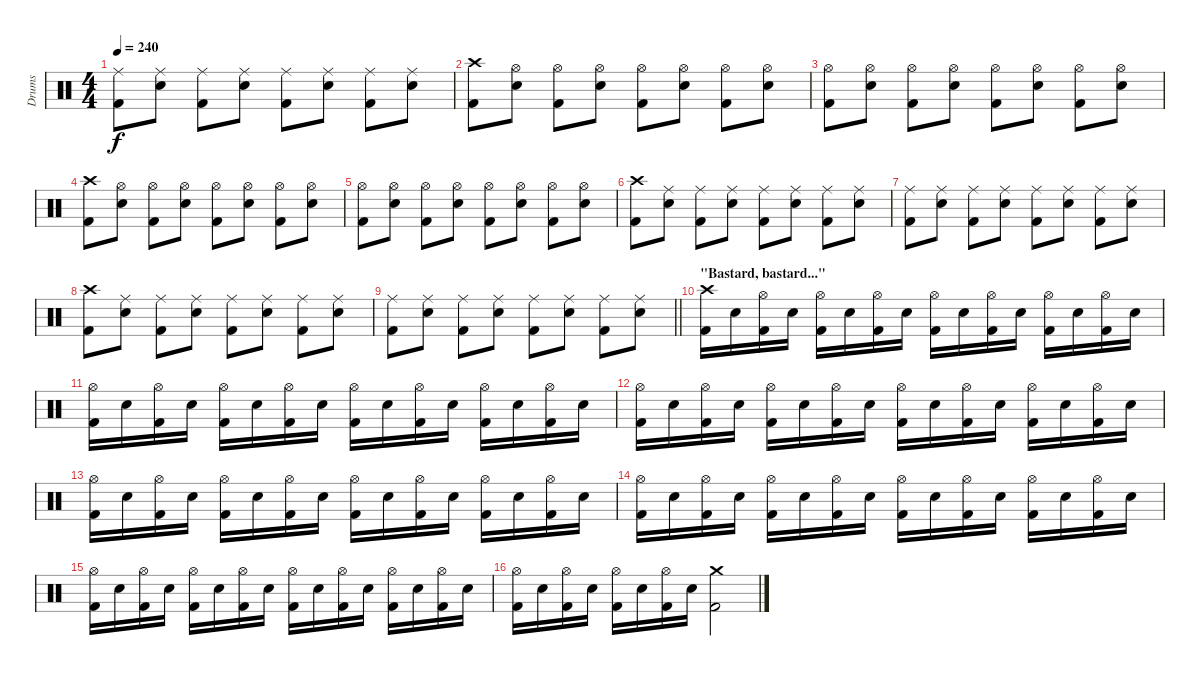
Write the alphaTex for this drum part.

\track ("Drums" "Drums") {instrument percussion}
\staff {score}
\articulation defaults
\ts (4 4)
\tempo 240
\clef neutral
\ks c
("Ride (middle)" "Kick (hit) 2").8{dy f} ("Ride (middle)" "Electric Snare (hit)").8 ("Ride (middle)" "Kick (hit) 2").8 ("Ride (middle)" "Electric Snare (hit)").8 ("Ride (middle)" "Kick (hit) 2").8 ("Ride (middle)" "Electric Snare (hit)").8 ("Ride (middle)" "Kick (hit) 2").8 ("Ride (middle)" "Electric Snare (hit)").8 |
("Crash high (hit)" "Kick (hit) 2").8 ("Hi-Hat (open)" "Electric Snare (hit)").8 ("Hi-Hat (open)" "Kick (hit) 2").8 ("Hi-Hat (open)" "Electric Snare (hit)").8 ("Hi-Hat (open)" "Kick (hit) 2").8 ("Hi-Hat (open)" "Electric Snare (hit)").8 ("Hi-Hat (open)" "Kick (hit) 2").8 ("Hi-Hat (open)" "Electric Snare (hit)").8 |
("Hi-Hat (open)" "Kick (hit) 2").8 ("Hi-Hat (open)" "Electric Snare (hit)").8 ("Hi-Hat (open)" "Kick (hit) 2").8 ("Hi-Hat (open)" "Electric Snare (hit)").8 ("Hi-Hat (open)" "Kick (hit) 2").8 ("Hi-Hat (open)" "Electric Snare (hit)").8 ("Hi-Hat (open)" "Kick (hit) 2").8 ("Hi-Hat (open)" "Electric Snare (hit)").8 |
("Crash high (hit)" "Kick (hit) 2").8 ("Hi-Hat (open)" "Electric Snare (hit)").8 ("Hi-Hat (open)" "Kick (hit) 2").8 ("Hi-Hat (open)" "Electric Snare (hit)").8 ("Hi-Hat (open)" "Kick (hit) 2").8 ("Hi-Hat (open)" "Electric Snare (hit)").8 ("Hi-Hat (open)" "Kick (hit) 2").8 ("Hi-Hat (open)" "Electric Snare (hit)").8 |
("Hi-Hat (open)" "Kick (hit) 2").8 ("Hi-Hat (open)" "Electric Snare (hit)").8 ("Hi-Hat (open)" "Kick (hit) 2").8 ("Hi-Hat (open)" "Electric Snare (hit)").8 ("Hi-Hat (open)" "Kick (hit) 2").8 ("Hi-Hat (open)" "Electric Snare (hit)").8 ("Hi-Hat (open)" "Kick (hit) 2").8 ("Hi-Hat (open)" "Electric Snare (hit)").8 |
("Crash high (hit)" "Kick (hit) 2").8 ("Ride (middle)" "Electric Snare (hit)").8 ("Ride (middle)" "Kick (hit) 2").8 ("Ride (middle)" "Electric Snare (hit)").8 ("Ride (middle)" "Kick (hit) 2").8 ("Ride (middle)" "Electric Snare (hit)").8 ("Ride (middle)" "Kick (hit) 2").8 ("Ride (middle)" "Electric Snare (hit)").8 |
("Ride (middle)" "Kick (hit) 2").8 ("Ride (middle)" "Electric Snare (hit)").8 ("Ride (middle)" "Kick (hit) 2").8 ("Ride (middle)" "Electric Snare (hit)").8 ("Ride (middle)" "Kick (hit) 2").8 ("Ride (middle)" "Electric Snare (hit)").8 ("Ride (middle)" "Kick (hit) 2").8 ("Ride (middle)" "Electric Snare (hit)").8 |
("Crash high (hit)" "Kick (hit) 2").8 ("Ride (middle)" "Electric Snare (hit)").8 ("Ride (middle)" "Kick (hit) 2").8 ("Ride (middle)" "Electric Snare (hit)").8 ("Ride (middle)" "Kick (hit) 2").8 ("Ride (middle)" "Electric Snare (hit)").8 ("Ride (middle)" "Kick (hit) 2").8 ("Ride (middle)" "Electric Snare (hit)").8 |
\barLineRight lightlight
("Ride (middle)" "Kick (hit) 2").8 ("Ride (middle)" "Electric Snare (hit)").8 ("Ride (middle)" "Kick (hit) 2").8 ("Ride (middle)" "Electric Snare (hit)").8 ("Ride (middle)" "Kick (hit) 2").8 ("Ride (middle)" "Electric Snare (hit)").8 ("Ride (middle)" "Kick (hit) 2").8 ("Ride (middle)" "Electric Snare (hit)").8 |
\section ("" "\"Bastard, bastard...\"")
("Crash high (hit)" "Kick (hit) 2").16 "Electric Snare (hit)".16 ("Hi-Hat (open)" "Kick (hit) 2").16 "Electric Snare (hit)".16 ("Hi-Hat (open)" "Kick (hit) 2").16 "Electric Snare (hit)".16 ("Hi-Hat (open)" "Kick (hit) 2").16 "Electric Snare (hit)".16 ("Hi-Hat (open)" "Kick (hit) 2").16 "Electric Snare (hit)".16 ("Hi-Hat (open)" "Kick (hit) 2").16 "Electric Snare (hit)".16 ("Hi-Hat (open)" "Kick (hit) 2").16 "Electric Snare (hit)".16 ("Hi-Hat (open)" "Kick (hit) 2").16 "Electric Snare (hit)".16 |
("Hi-Hat (open)" "Kick (hit) 2").16 "Electric Snare (hit)".16 ("Hi-Hat (open)" "Kick (hit) 2").16 "Electric Snare (hit)".16 ("Hi-Hat (open)" "Kick (hit) 2").16 "Electric Snare (hit)".16 ("Hi-Hat (open)" "Kick (hit) 2").16 "Electric Snare (hit)".16 ("Hi-Hat (open)" "Kick (hit) 2").16 "Electric Snare (hit)".16 ("Hi-Hat (open)" "Kick (hit) 2").16 "Electric Snare (hit)".16 ("Hi-Hat (open)" "Kick (hit) 2").16 "Electric Snare (hit)".16 ("Hi-Hat (open)" "Kick (hit) 2").16 "Electric Snare (hit)".16 |
("Hi-Hat (open)" "Kick (hit) 2").16 "Electric Snare (hit)".16 ("Hi-Hat (open)" "Kick (hit) 2").16 "Electric Snare (hit)".16 ("Hi-Hat (open)" "Kick (hit) 2").16 "Electric Snare (hit)".16 ("Hi-Hat (open)" "Kick (hit) 2").16 "Electric Snare (hit)".16 ("Hi-Hat (open)" "Kick (hit) 2").16 "Electric Snare (hit)".16 ("Hi-Hat (open)" "Kick (hit) 2").16 "Electric Snare (hit)".16 ("Hi-Hat (open)" "Kick (hit) 2").16 "Electric Snare (hit)".16 ("Hi-Hat (open)" "Kick (hit) 2").16 "Electric Snare (hit)".16 |
("Hi-Hat (open)" "Kick (hit) 2").16 "Electric Snare (hit)".16 ("Hi-Hat (open)" "Kick (hit) 2").16 "Electric Snare (hit)".16 ("Hi-Hat (open)" "Kick (hit) 2").16 "Electric Snare (hit)".16 ("Hi-Hat (open)" "Kick (hit) 2").16 "Electric Snare (hit)".16 ("Hi-Hat (open)" "Kick (hit) 2").16 "Electric Snare (hit)".16 ("Hi-Hat (open)" "Kick (hit) 2").16 "Electric Snare (hit)".16 ("Hi-Hat (open)" "Kick (hit) 2").16 "Electric Snare (hit)".16 ("Hi-Hat (open)" "Kick (hit) 2").16 "Electric Snare (hit)".16 |
("Hi-Hat (open)" "Kick (hit) 2").16 "Electric Snare (hit)".16 ("Hi-Hat (open)" "Kick (hit) 2").16 "Electric Snare (hit)".16 ("Hi-Hat (open)" "Kick (hit) 2").16 "Electric Snare (hit)".16 ("Hi-Hat (open)" "Kick (hit) 2").16 "Electric Snare (hit)".16 ("Hi-Hat (open)" "Kick (hit) 2").16 "Electric Snare (hit)".16 ("Hi-Hat (open)" "Kick (hit) 2").16 "Electric Snare (hit)".16 ("Hi-Hat (open)" "Kick (hit) 2").16 "Electric Snare (hit)".16 ("Hi-Hat (open)" "Kick (hit) 2").16 "Electric Snare (hit)".16 |
("Hi-Hat (open)" "Kick (hit) 2").16 "Electric Snare (hit)".16 ("Hi-Hat (open)" "Kick (hit) 2").16 "Electric Snare (hit)".16 ("Hi-Hat (open)" "Kick (hit) 2").16 "Electric Snare (hit)".16 ("Hi-Hat (open)" "Kick (hit) 2").16 "Electric Snare (hit)".16 ("Hi-Hat (open)" "Kick (hit) 2").16 "Electric Snare (hit)".16 ("Hi-Hat (open)" "Kick (hit) 2").16 "Electric Snare (hit)".16 ("Hi-Hat (open)" "Kick (hit) 2").16 "Electric Snare (hit)".16 ("Hi-Hat (open)" "Kick (hit) 2").16 "Electric Snare (hit)".16 |
("Hi-Hat (open)" "Kick (hit) 2").16 "Electric Snare (hit)".16 ("Hi-Hat (open)" "Kick (hit) 2").16 "Electric Snare (hit)".16 ("Hi-Hat (open)" "Kick (hit) 2").16 "Electric Snare (hit)".16 ("Hi-Hat (open)" "Kick (hit) 2").16 "Electric Snare (hit)".16 ("Crash medium (hit)" "Kick (hit) 2").2
